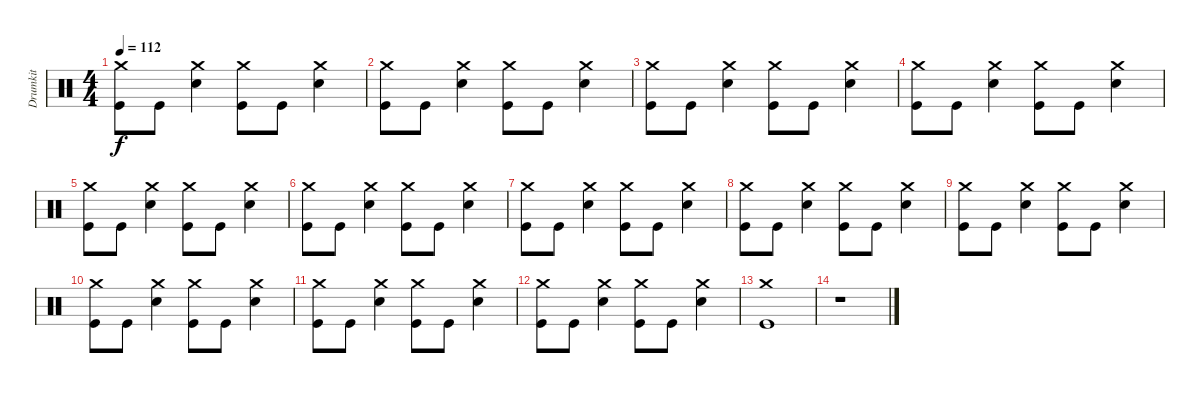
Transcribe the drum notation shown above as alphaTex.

\track ("Drumkit" "Drumkit") {instrument percussion}
\staff {score}
\articulation defaults
\ts (4 4)
\tempo 112
\clef neutral
\ks c
("Crash medium (hit)" "Kick (hit)").8{dy f} "Kick (hit)".8 ("Crash medium (hit)" "Snare (hit) 2").4 ("Crash medium (hit)" "Kick (hit)").8 "Kick (hit)".8 ("Crash medium (hit)" "Snare (hit) 2").4 |
("Crash medium (hit)" "Kick (hit)").8 "Kick (hit)".8 ("Crash medium (hit)" "Snare (hit) 2").4 ("Crash medium (hit)" "Kick (hit)").8 "Kick (hit)".8 ("Crash medium (hit)" "Snare (hit) 2").4 |
("Crash medium (hit)" "Kick (hit)").8 "Kick (hit)".8 ("Crash medium (hit)" "Snare (hit) 2").4 ("Crash medium (hit)" "Kick (hit)").8 "Kick (hit)".8 ("Crash medium (hit)" "Snare (hit) 2").4 |
("Crash medium (hit)" "Kick (hit)").8 "Kick (hit)".8 ("Crash medium (hit)" "Snare (hit) 2").4 ("Crash medium (hit)" "Kick (hit)").8 "Kick (hit)".8 ("Crash medium (hit)" "Snare (hit) 2").4 |
("Crash medium (hit)" "Kick (hit)").8 "Kick (hit)".8 ("Crash medium (hit)" "Snare (hit) 2").4 ("Crash medium (hit)" "Kick (hit)").8 "Kick (hit)".8 ("Crash medium (hit)" "Snare (hit) 2").4 |
("Crash medium (hit)" "Kick (hit)").8 "Kick (hit)".8 ("Crash medium (hit)" "Snare (hit) 2").4 ("Crash medium (hit)" "Kick (hit)").8 "Kick (hit)".8 ("Crash medium (hit)" "Snare (hit) 2").4 |
("Crash medium (hit)" "Kick (hit)").8 "Kick (hit)".8 ("Crash medium (hit)" "Snare (hit) 2").4 ("Crash medium (hit)" "Kick (hit)").8 "Kick (hit)".8 ("Crash medium (hit)" "Snare (hit) 2").4 |
("Crash medium (hit)" "Kick (hit)").8 "Kick (hit)".8 ("Crash medium (hit)" "Snare (hit) 2").4 ("Crash medium (hit)" "Kick (hit)").8 "Kick (hit)".8 ("Crash medium (hit)" "Snare (hit) 2").4 |
("Crash medium (hit)" "Kick (hit)").8 "Kick (hit)".8 ("Crash medium (hit)" "Snare (hit) 2").4 ("Crash medium (hit)" "Kick (hit)").8 "Kick (hit)".8 ("Crash medium (hit)" "Snare (hit) 2").4 |
("Crash medium (hit)" "Kick (hit)").8 "Kick (hit)".8 ("Crash medium (hit)" "Snare (hit) 2").4 ("Crash medium (hit)" "Kick (hit)").8 "Kick (hit)".8 ("Crash medium (hit)" "Snare (hit) 2").4 |
("Crash medium (hit)" "Kick (hit)").8 "Kick (hit)".8 ("Crash medium (hit)" "Snare (hit) 2").4 ("Crash medium (hit)" "Kick (hit)").8 "Kick (hit)".8 ("Crash medium (hit)" "Snare (hit) 2").4 |
("Crash medium (hit)" "Kick (hit)").8 "Kick (hit)".8 ("Crash medium (hit)" "Snare (hit) 2").4 ("Crash medium (hit)" "Kick (hit)").8 "Kick (hit)".8 ("Crash medium (hit)" "Snare (hit) 2").4 |
("Crash medium (hit)" "Kick (hit)").1 |
r.1
